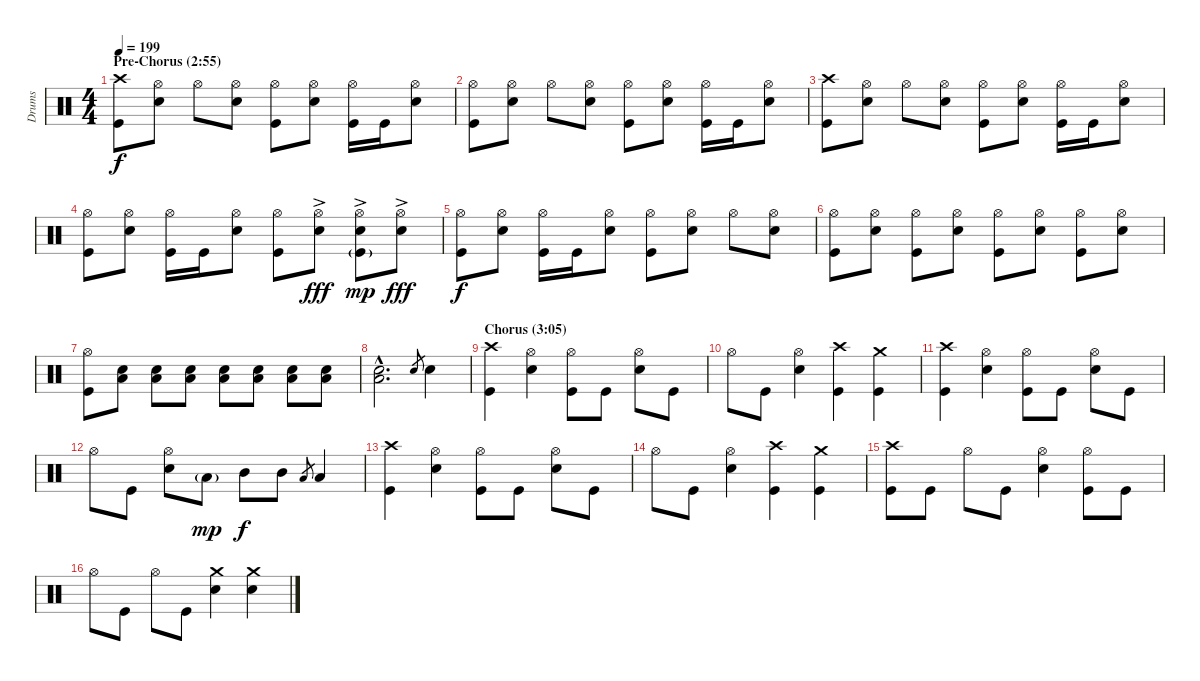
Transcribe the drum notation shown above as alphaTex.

\track ("Drums" "Drums") {instrument percussion}
\staff {score}
\articulation defaults
\ts (4 4)
\section ("" "Pre-Chorus (2:55)")
\tempo 199
\clef neutral
\ks c
("Crash high (hit)" "Kick (hit)").8{dy f} ("Hi-Hat (open)" "Snare (hit) 2").8 "Hi-Hat (open)".8 ("Hi-Hat (open)" "Snare (hit) 2").8 ("Hi-Hat (open)" "Kick (hit)").8 ("Hi-Hat (open)" "Snare (hit) 2").8 ("Hi-Hat (open)" "Kick (hit)").16 "Kick (hit)".16 ("Hi-Hat (open)" "Snare (hit) 2").8 |
("Hi-Hat (open)" "Kick (hit)").8 ("Hi-Hat (open)" "Snare (hit) 2").8 "Hi-Hat (open)".8 ("Hi-Hat (open)" "Snare (hit) 2").8 ("Hi-Hat (open)" "Kick (hit)").8 ("Hi-Hat (open)" "Snare (hit) 2").8 ("Hi-Hat (open)" "Kick (hit)").16 "Kick (hit)".16 ("Hi-Hat (open)" "Snare (hit) 2").8 |
("Crash high (hit)" "Kick (hit)").8 ("Hi-Hat (open)" "Snare (hit) 2").8 "Hi-Hat (open)".8 ("Hi-Hat (open)" "Snare (hit) 2").8 ("Hi-Hat (open)" "Kick (hit)").8 ("Hi-Hat (open)" "Snare (hit) 2").8 ("Hi-Hat (open)" "Kick (hit)").16 "Kick (hit)".16 ("Hi-Hat (open)" "Snare (hit) 2").8 |
("Hi-Hat (open)" "Kick (hit)").8 ("Hi-Hat (open)" "Snare (hit) 2").8 ("Hi-Hat (open)" "Kick (hit)").16 "Kick (hit)".16 ("Hi-Hat (open)" "Snare (hit) 2").8 ("Hi-Hat (open)" "Kick (hit)").8 ("Hi-Hat (open)"{ac} "Snare (hit) 2"{ac}).8{dy fff} ("Hi-Hat (open)"{ac} "Snare (hit) 2"{ac} "Kick (hit)"{g}).8{dy mp} ("Hi-Hat (open)"{ac} "Snare (hit) 2"{ac}).8{dy fff} |
("Hi-Hat (open)" "Kick (hit)").8{dy f} ("Hi-Hat (open)" "Snare (hit) 2").8 ("Hi-Hat (open)" "Kick (hit)").16 "Kick (hit)".16 ("Hi-Hat (open)" "Snare (hit) 2").8 ("Hi-Hat (open)" "Kick (hit)").8 ("Hi-Hat (open)" "Snare (hit) 2").8 "Hi-Hat (open)".8 ("Hi-Hat (open)" "Snare (hit) 2").8 |
("Hi-Hat (open)" "Kick (hit)").8 ("Hi-Hat (open)" "Snare (hit) 2").8 ("Hi-Hat (open)" "Kick (hit)").8 ("Hi-Hat (open)" "Snare (hit) 2").8 ("Hi-Hat (open)" "Kick (hit)").8 ("Hi-Hat (open)" "Snare (hit) 2").8 ("Hi-Hat (open)" "Kick (hit)").8 ("Hi-Hat (open)" "Snare (hit) 2").8 |
("Hi-Hat (open)" "Kick (hit)").8 ("Snare (hit) 2" "Low Floor Tom (hit)").8 ("Snare (hit) 2" "Low Floor Tom (hit)").8 ("Snare (hit) 2" "Low Floor Tom (hit)").8 ("Snare (hit) 2" "Low Floor Tom (hit)").8 ("Snare (hit) 2" "Low Floor Tom (hit)").8 ("Snare (hit) 2" "Low Floor Tom (hit)").8 ("Snare (hit) 2" "Low Floor Tom (hit)").8 |
("Snare (hit) 2"{hac} "Low Floor Tom (hit)"{hac}).2{d} "Snare (hit) 2".8{gr} "Snare (hit) 2".4 |
\section ("" "Chorus (3:05)")
("Crash high (hit)" "Kick (hit)").4 ("Hi-Hat (open)" "Snare (hit) 2").4 ("Hi-Hat (open)" "Kick (hit)").8 "Kick (hit)".8 ("Hi-Hat (open)" "Snare (hit) 2").8 "Kick (hit)".8 |
"Hi-Hat (open)".8 "Kick (hit)".8 ("Hi-Hat (open)" "Snare (hit) 2").4 ("Crash high (hit)" "Kick (hit)").4 ("Crash medium (hit)" "Kick (hit)").4 |
("Crash high (hit)" "Kick (hit)").4 ("Hi-Hat (open)" "Snare (hit) 2").4 ("Hi-Hat (open)" "Kick (hit)").8 "Kick (hit)".8 ("Hi-Hat (open)" "Snare (hit) 2").8 "Kick (hit)".8 |
"Hi-Hat (open)".8 "Kick (hit)".8 ("Hi-Hat (open)" "Snare (hit) 2").8 "Low Tom (hit)"{g}.8{dy mp} "Mid Tom (hit)".8{dy f} "Mid Tom (hit)".8 "Low Tom (hit)".8{gr} "Low Tom (hit)".4 |
("Crash high (hit)" "Kick (hit)").4 ("Hi-Hat (open)" "Snare (hit) 2").4 ("Hi-Hat (open)" "Kick (hit)").8 "Kick (hit)".8 ("Hi-Hat (open)" "Snare (hit) 2").8 "Kick (hit)".8 |
"Hi-Hat (open)".8 "Kick (hit)".8 ("Hi-Hat (open)" "Snare (hit) 2").4 ("Crash high (hit)" "Kick (hit)").4 ("Crash medium (hit)" "Kick (hit)").4 |
("Crash high (hit)" "Kick (hit)").8 "Kick (hit)".8 "Hi-Hat (open)".8 "Kick (hit)".8 ("Hi-Hat (open)" "Snare (hit) 2").4 ("Hi-Hat (open)" "Kick (hit)").8 "Kick (hit)".8 |
"Hi-Hat (open)".8 "Kick (hit)".8 "Hi-Hat (open)".8 "Kick (hit)".8 ("Crash medium (hit)" "Snare (hit) 2").4 ("Crash medium (hit)" "Snare (hit) 2").4
